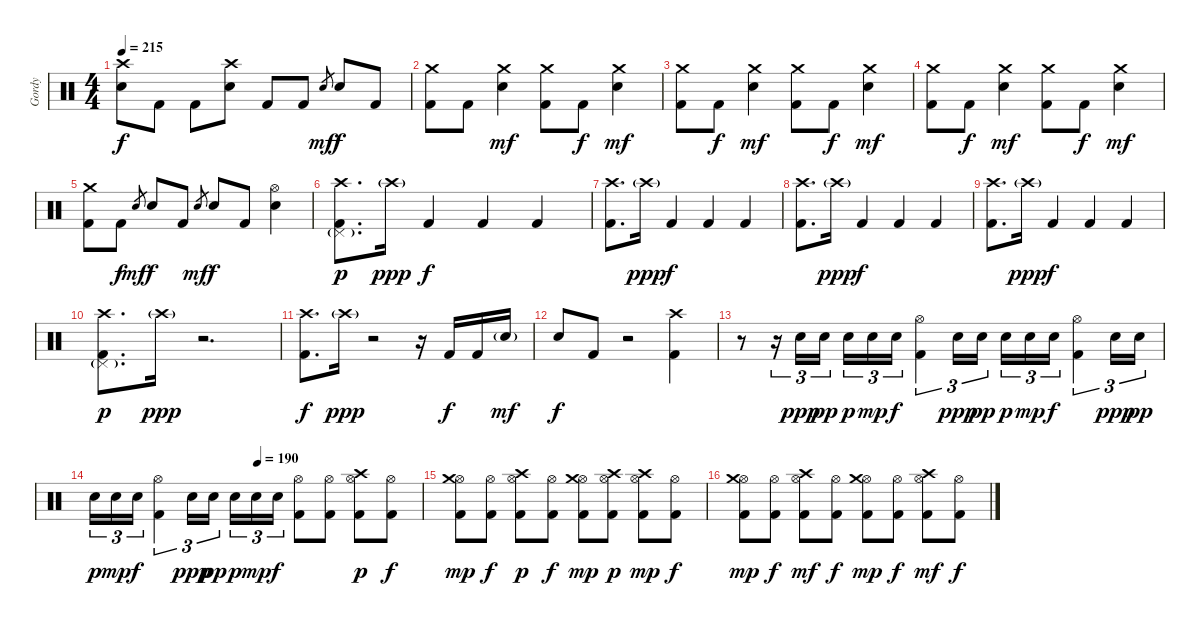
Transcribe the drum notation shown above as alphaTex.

\track ("Gordy" "Gordy") {instrument percussion}
\staff {score}
\articulation defaults
\ts (4 4)
\tempo 215
\clef neutral
\ks c
("Crash high (hit)" "Electric Snare (hit)").8{dy f} "Kick (hit) 2".8 "Kick (hit) 2".8 ("Crash high (hit)" "Electric Snare (hit)").8 "Kick (hit) 2".8 "Kick (hit) 2".8 "Electric Snare (hit)".8{gr dy mf} "Electric Snare (hit)".8{dy f} "Kick (hit) 2".8 |
("Crash medium (hit)" "Kick (hit) 2").8 "Kick (hit) 2".8 ("Crash medium (hit)" "Electric Snare (hit)").4{dy mf} ("Crash medium (hit)" "Kick (hit) 2").8 "Kick (hit) 2".8{dy f} ("Crash medium (hit)" "Electric Snare (hit)").4{dy mf} |
("Crash medium (hit)" "Kick (hit) 2").8 "Kick (hit) 2".8{dy f} ("Crash medium (hit)" "Electric Snare (hit)").4{dy mf} ("Crash medium (hit)" "Kick (hit) 2").8 "Kick (hit) 2".8{dy f} ("Crash medium (hit)" "Electric Snare (hit)").4{dy mf} |
("Crash medium (hit)" "Kick (hit) 2").8 "Kick (hit) 2".8{dy f} ("Crash medium (hit)" "Electric Snare (hit)").4{dy mf} ("Crash medium (hit)" "Kick (hit) 2").8 "Kick (hit) 2".8{dy f} ("Crash medium (hit)" "Electric Snare (hit)").4{dy mf} |
("Crash medium (hit)" "Kick (hit) 2").8 "Kick (hit) 2".8{dy f} "Electric Snare (hit)".8{gr dy mf} "Electric Snare (hit)".8{dy f} "Kick (hit) 2".8 "Electric Snare (hit)".8{gr dy mf} "Electric Snare (hit)".8{dy f} "Kick (hit) 2".8 ("Hi-Hat (open)" "Electric Snare (hit)").4 |
("Pedal Hi-Hat (hit)"{g} "Crash high (hit)" "Kick (hit) 2").8{d dy p} "Crash high (hit)"{g}.16{dy ppp} "Kick (hit) 2".4{dy f} "Kick (hit) 2".4 "Kick (hit) 2".4 |
("Crash high (hit)" "Kick (hit) 2").8{d} "Crash high (hit)"{g}.16{dy ppp} "Kick (hit) 2".4{dy f} "Kick (hit) 2".4 "Kick (hit) 2".4 |
("Crash high (hit)" "Kick (hit) 2").8{d} "Crash high (hit)"{g}.16{dy ppp} "Kick (hit) 2".4{dy f} "Kick (hit) 2".4 "Kick (hit) 2".4 |
("Crash high (hit)" "Kick (hit) 2").8{d} "Crash high (hit)"{g}.16{dy ppp} "Kick (hit) 2".4{dy f} "Kick (hit) 2".4 "Kick (hit) 2".4 |
("Pedal Hi-Hat (hit)"{g} "Crash high (hit)" "Kick (hit) 2").8{d dy p} "Crash high (hit)"{g}.16{dy ppp} r.2{d} |
("Crash high (hit)" "Kick (hit) 2").8{d dy f} "Crash high (hit)"{g}.16{dy ppp} r.2 r.16 "Kick (hit) 2".16{dy f} "Kick (hit) 2".16 "Electric Snare (hit)"{g}.16{dy mf} |
"Electric Snare (hit)".8{dy f} "Kick (hit) 2".8 r.2 ("Crash high (hit)" "Kick (hit) 2").4 |
r.8 r.16{tu (3 2)} "Electric Snare (hit)".16{tu (3 2) dy ppp} "Electric Snare (hit)".16{tu (3 2) dy pp} "Electric Snare (hit)".16{tu (3 2) dy p} "Electric Snare (hit)".16{tu (3 2) dy mp} "Electric Snare (hit)".16{tu (3 2) dy f} ("Hi-Hat (open)" "Kick (hit) 2").4{tu (3 2)} "Electric Snare (hit)".16{tu (3 2) dy ppp} "Electric Snare (hit)".16{tu (3 2) dy pp beam splitsecondary} "Electric Snare (hit)".16{tu (3 2) dy p} "Electric Snare (hit)".16{tu (3 2) dy mp} "Electric Snare (hit)".16{tu (3 2) dy f} ("Hi-Hat (open)" "Kick (hit) 2").4{tu (3 2)} "Electric Snare (hit)".16{tu (3 2) dy ppp} "Electric Snare (hit)".16{tu (3 2) dy pp} |
\tempo (190 0.5)
"Electric Snare (hit)".16{tu (3 2) dy p volume 0} "Electric Snare (hit)".16{tu (3 2) dy mp} "Electric Snare (hit)".16{tu (3 2) dy f} ("Hi-Hat (open)" "Kick (hit) 2").4{tu (3 2)} "Electric Snare (hit)".16{tu (3 2) dy ppp} "Electric Snare (hit)".16{tu (3 2) dy pp beam splitsecondary} "Electric Snare (hit)".16{tu (3 2) dy p} "Electric Snare (hit)".16{tu (3 2) dy mp} "Electric Snare (hit)".16{tu (3 2) dy f} ("Hi-Hat (open)" "Kick (hit) 2").8 ("Hi-Hat (open)" "Kick (hit) 2").8 ("Hi-Hat (open)" "Crash high (hit)" "Kick (hit) 2").8{dy p} ("Hi-Hat (open)" "Kick (hit) 2").8{dy f} |
("Hi-Hat (open)" "Crash medium (hit)" "Kick (hit) 2").8{dy mp} ("Hi-Hat (open)" "Kick (hit) 2").8{dy f} ("Hi-Hat (open)" "Crash high (hit)" "Kick (hit) 2").8{dy p} ("Hi-Hat (open)" "Kick (hit) 2").8{dy f} ("Hi-Hat (open)" "Crash medium (hit)" "Kick (hit) 2").8{dy mp} ("Hi-Hat (open)" "Crash high (hit)" "Kick (hit) 2").8{dy p} ("Hi-Hat (open)" "Crash high (hit)" "Kick (hit) 2").8{dy mp} ("Hi-Hat (open)" "Kick (hit) 2").8{dy f} |
("Hi-Hat (open)" "Crash medium (hit)" "Kick (hit) 2").8{dy mp} ("Hi-Hat (open)" "Kick (hit) 2").8{dy f} ("Hi-Hat (open)" "Crash high (hit)" "Kick (hit) 2").8{dy mf} ("Hi-Hat (open)" "Kick (hit) 2").8{dy f} ("Hi-Hat (open)" "Crash medium (hit)" "Kick (hit) 2").8{dy mp} ("Hi-Hat (open)" "Kick (hit) 2").8{dy f} ("Hi-Hat (open)" "Crash high (hit)" "Kick (hit) 2").8{dy mf} ("Hi-Hat (open)" "Kick (hit) 2").8{dy f}
